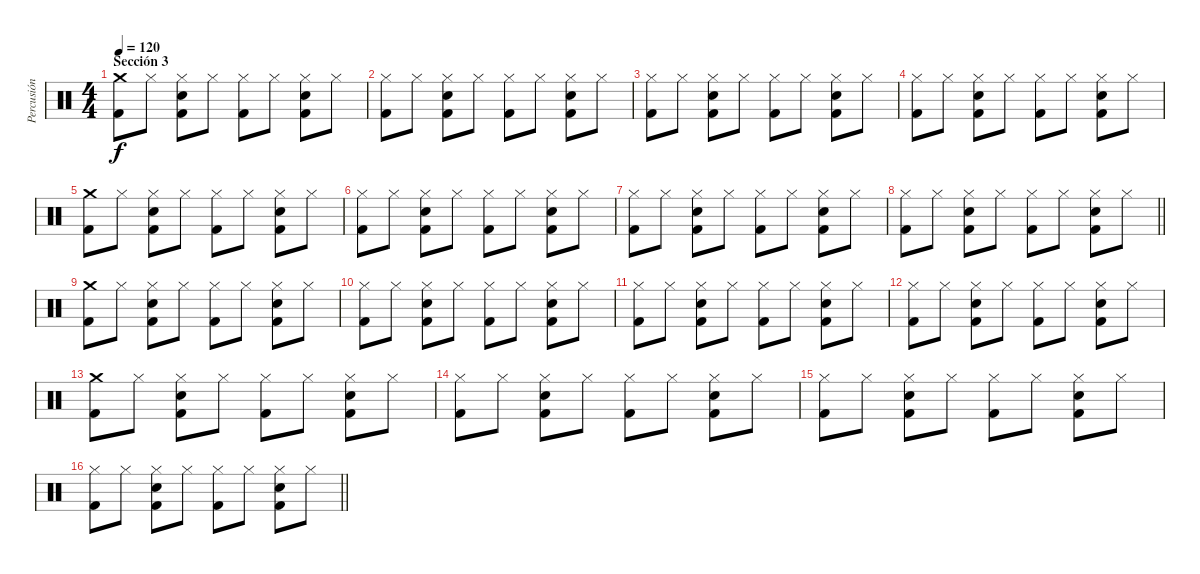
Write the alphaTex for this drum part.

\track ("Percusión" "Percusión") {instrument percussion}
\staff {score}
\articulation defaults
\ts (4 4)
\section ("" "Sección 3")
\tempo 120
\clef neutral
\ks c
("Kick (hit) 2" "Crash medium (hit)").8{dy f} "Hi-Hat (closed)".8 ("Kick (hit) 2" "Hi-Hat (closed)" "Electric Snare (hit)").8 "Hi-Hat (closed)".8 ("Kick (hit) 2" "Hi-Hat (closed)").8 "Hi-Hat (closed)".8 ("Kick (hit) 2" "Hi-Hat (closed)" "Electric Snare (hit)").8 "Hi-Hat (closed)".8 |
("Kick (hit) 2" "Hi-Hat (closed)").8 "Hi-Hat (closed)".8 ("Kick (hit) 2" "Hi-Hat (closed)" "Electric Snare (hit)").8 "Hi-Hat (closed)".8 ("Kick (hit) 2" "Hi-Hat (closed)").8 "Hi-Hat (closed)".8 ("Kick (hit) 2" "Hi-Hat (closed)" "Electric Snare (hit)").8 "Hi-Hat (closed)".8 |
("Kick (hit) 2" "Hi-Hat (closed)").8 "Hi-Hat (closed)".8 ("Kick (hit) 2" "Hi-Hat (closed)" "Electric Snare (hit)").8 "Hi-Hat (closed)".8 ("Kick (hit) 2" "Hi-Hat (closed)").8 "Hi-Hat (closed)".8 ("Kick (hit) 2" "Hi-Hat (closed)" "Electric Snare (hit)").8 "Hi-Hat (closed)".8 |
("Kick (hit) 2" "Hi-Hat (closed)").8 "Hi-Hat (closed)".8 ("Kick (hit) 2" "Hi-Hat (closed)" "Electric Snare (hit)").8 "Hi-Hat (closed)".8 ("Kick (hit) 2" "Hi-Hat (closed)").8 "Hi-Hat (closed)".8 ("Kick (hit) 2" "Hi-Hat (closed)" "Electric Snare (hit)").8 "Hi-Hat (closed)".8 |
("Kick (hit) 2" "Crash medium (hit)").8 "Hi-Hat (closed)".8 ("Kick (hit) 2" "Hi-Hat (closed)" "Electric Snare (hit)").8 "Hi-Hat (closed)".8 ("Kick (hit) 2" "Hi-Hat (closed)").8 "Hi-Hat (closed)".8 ("Kick (hit) 2" "Hi-Hat (closed)" "Electric Snare (hit)").8 "Hi-Hat (closed)".8 |
("Kick (hit) 2" "Hi-Hat (closed)").8 "Hi-Hat (closed)".8 ("Kick (hit) 2" "Hi-Hat (closed)" "Electric Snare (hit)").8 "Hi-Hat (closed)".8 ("Kick (hit) 2" "Hi-Hat (closed)").8 "Hi-Hat (closed)".8 ("Kick (hit) 2" "Hi-Hat (closed)" "Electric Snare (hit)").8 "Hi-Hat (closed)".8 |
("Kick (hit) 2" "Hi-Hat (closed)").8 "Hi-Hat (closed)".8 ("Kick (hit) 2" "Hi-Hat (closed)" "Electric Snare (hit)").8 "Hi-Hat (closed)".8 ("Kick (hit) 2" "Hi-Hat (closed)").8 "Hi-Hat (closed)".8 ("Kick (hit) 2" "Hi-Hat (closed)" "Electric Snare (hit)").8 "Hi-Hat (closed)".8 |
\barLineRight lightlight
("Kick (hit) 2" "Hi-Hat (closed)").8 "Hi-Hat (closed)".8 ("Kick (hit) 2" "Hi-Hat (closed)" "Electric Snare (hit)").8 "Hi-Hat (closed)".8 ("Kick (hit) 2" "Hi-Hat (closed)").8 "Hi-Hat (closed)".8 ("Kick (hit) 2" "Hi-Hat (closed)" "Electric Snare (hit)").8 "Hi-Hat (closed)".8 |
("Kick (hit) 2" "Crash medium (hit)").8 "Hi-Hat (closed)".8 ("Kick (hit) 2" "Hi-Hat (closed)" "Electric Snare (hit)").8 "Hi-Hat (closed)".8 ("Kick (hit) 2" "Hi-Hat (closed)").8 "Hi-Hat (closed)".8 ("Kick (hit) 2" "Hi-Hat (closed)" "Electric Snare (hit)").8 "Hi-Hat (closed)".8 |
("Kick (hit) 2" "Hi-Hat (closed)").8 "Hi-Hat (closed)".8 ("Kick (hit) 2" "Hi-Hat (closed)" "Electric Snare (hit)").8 "Hi-Hat (closed)".8 ("Kick (hit) 2" "Hi-Hat (closed)").8 "Hi-Hat (closed)".8 ("Kick (hit) 2" "Hi-Hat (closed)" "Electric Snare (hit)").8 "Hi-Hat (closed)".8 |
("Kick (hit) 2" "Hi-Hat (closed)").8 "Hi-Hat (closed)".8 ("Kick (hit) 2" "Hi-Hat (closed)" "Electric Snare (hit)").8 "Hi-Hat (closed)".8 ("Kick (hit) 2" "Hi-Hat (closed)").8 "Hi-Hat (closed)".8 ("Kick (hit) 2" "Hi-Hat (closed)" "Electric Snare (hit)").8 "Hi-Hat (closed)".8 |
("Kick (hit) 2" "Hi-Hat (closed)").8 "Hi-Hat (closed)".8 ("Kick (hit) 2" "Hi-Hat (closed)" "Electric Snare (hit)").8 "Hi-Hat (closed)".8 ("Kick (hit) 2" "Hi-Hat (closed)").8 "Hi-Hat (closed)".8 ("Kick (hit) 2" "Hi-Hat (closed)" "Electric Snare (hit)").8 "Hi-Hat (closed)".8 |
("Kick (hit) 2" "Crash medium (hit)").8 "Hi-Hat (closed)".8 ("Kick (hit) 2" "Hi-Hat (closed)" "Electric Snare (hit)").8 "Hi-Hat (closed)".8 ("Kick (hit) 2" "Hi-Hat (closed)").8 "Hi-Hat (closed)".8 ("Kick (hit) 2" "Hi-Hat (closed)" "Electric Snare (hit)").8 "Hi-Hat (closed)".8 |
("Kick (hit) 2" "Hi-Hat (closed)").8 "Hi-Hat (closed)".8 ("Kick (hit) 2" "Hi-Hat (closed)" "Electric Snare (hit)").8 "Hi-Hat (closed)".8 ("Kick (hit) 2" "Hi-Hat (closed)").8 "Hi-Hat (closed)".8 ("Kick (hit) 2" "Hi-Hat (closed)" "Electric Snare (hit)").8 "Hi-Hat (closed)".8 |
("Kick (hit) 2" "Hi-Hat (closed)").8 "Hi-Hat (closed)".8 ("Kick (hit) 2" "Hi-Hat (closed)" "Electric Snare (hit)").8 "Hi-Hat (closed)".8 ("Kick (hit) 2" "Hi-Hat (closed)").8 "Hi-Hat (closed)".8 ("Kick (hit) 2" "Hi-Hat (closed)" "Electric Snare (hit)").8 "Hi-Hat (closed)".8 |
\barLineRight lightlight
("Kick (hit) 2" "Hi-Hat (closed)").8 "Hi-Hat (closed)".8 ("Kick (hit) 2" "Hi-Hat (closed)" "Electric Snare (hit)").8 "Hi-Hat (closed)".8 ("Kick (hit) 2" "Hi-Hat (closed)").8 "Hi-Hat (closed)".8 ("Kick (hit) 2" "Hi-Hat (closed)" "Electric Snare (hit)").8 "Hi-Hat (closed)".8
